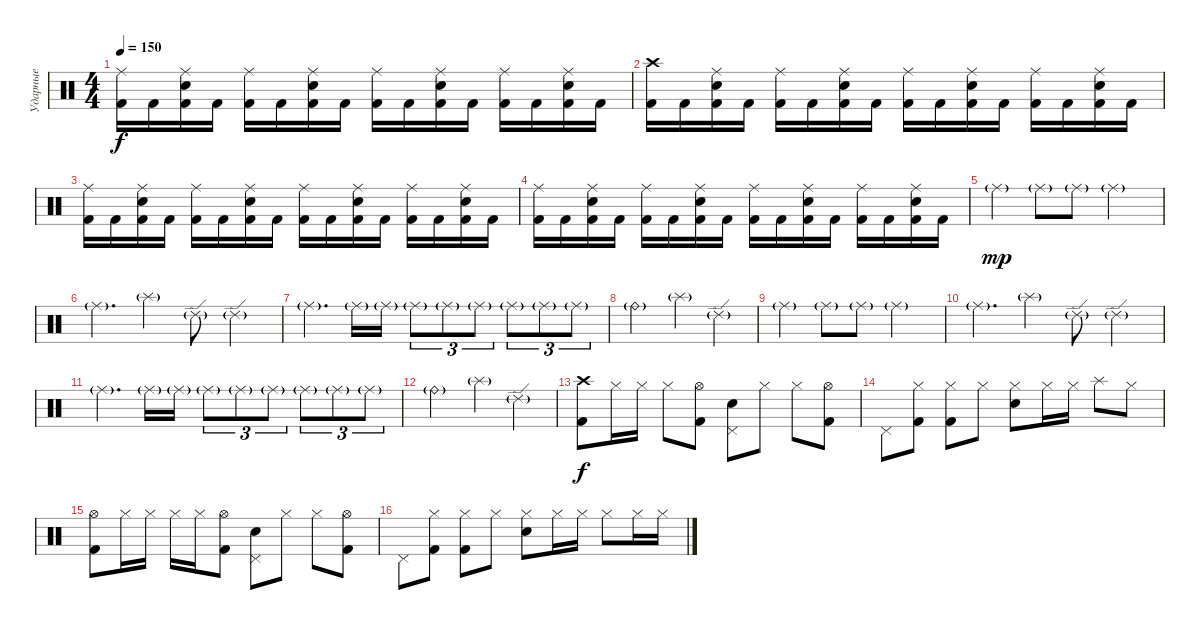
\track ("Ударные" "Ударные") {instrument percussion}
\staff {score}
\articulation defaults
\ts (4 4)
\tempo 150
\clef neutral
\ks c
("Ride (middle)" "Kick (hit) 2").16{dy f} "Kick (hit) 2".16 ("Ride (middle)" "Electric Snare (hit)" "Kick (hit) 2").16 "Kick (hit) 2".16 ("Ride (middle)" "Kick (hit) 2").16 "Kick (hit) 2".16 ("Ride (middle)" "Electric Snare (hit)" "Kick (hit) 2").16 "Kick (hit) 2".16 ("Ride (middle)" "Kick (hit) 2").16 "Kick (hit) 2".16 ("Ride (middle)" "Electric Snare (hit)" "Kick (hit) 2").16 "Kick (hit) 2".16 ("Ride (middle)" "Kick (hit) 2").16 "Kick (hit) 2".16 ("Ride (middle)" "Electric Snare (hit)" "Kick (hit) 2").16 "Kick (hit) 2".16 |
("Crash high (hit)" "Kick (hit) 2").16 "Kick (hit) 2".16 ("Ride (middle)" "Electric Snare (hit)" "Kick (hit) 2").16 "Kick (hit) 2".16 ("Ride (middle)" "Kick (hit) 2").16 "Kick (hit) 2".16 ("Ride (middle)" "Electric Snare (hit)" "Kick (hit) 2").16 "Kick (hit) 2".16 ("Ride (middle)" "Kick (hit) 2").16 "Kick (hit) 2".16 ("Ride (middle)" "Electric Snare (hit)" "Kick (hit) 2").16 "Kick (hit) 2".16 ("Ride (middle)" "Kick (hit) 2").16 "Kick (hit) 2".16 ("Ride (middle)" "Electric Snare (hit)" "Kick (hit) 2").16 "Kick (hit) 2".16 |
("Ride (middle)" "Kick (hit) 2").16 "Kick (hit) 2".16 ("Ride (middle)" "Electric Snare (hit)" "Kick (hit) 2").16 "Kick (hit) 2".16 ("Ride (middle)" "Kick (hit) 2").16 "Kick (hit) 2".16 ("Ride (middle)" "Electric Snare (hit)" "Kick (hit) 2").16 "Kick (hit) 2".16 ("Ride (middle)" "Kick (hit) 2").16 "Kick (hit) 2".16 ("Ride (middle)" "Electric Snare (hit)" "Kick (hit) 2").16 "Kick (hit) 2".16 ("Ride (middle)" "Kick (hit) 2").16 "Kick (hit) 2".16 ("Ride (middle)" "Electric Snare (hit)" "Kick (hit) 2").16 "Kick (hit) 2".16 |
("Ride (middle)" "Kick (hit) 2").16 "Kick (hit) 2".16 ("Ride (middle)" "Electric Snare (hit)" "Kick (hit) 2").16 "Kick (hit) 2".16 ("Ride (middle)" "Kick (hit) 2").16 "Kick (hit) 2".16 ("Ride (middle)" "Electric Snare (hit)" "Kick (hit) 2").16 "Kick (hit) 2".16 ("Ride (middle)" "Kick (hit) 2").16 "Kick (hit) 2".16 ("Ride (middle)" "Electric Snare (hit)" "Kick (hit) 2").16 "Kick (hit) 2".16 ("Ride (middle)" "Kick (hit) 2").16 "Kick (hit) 2".16 ("Ride (middle)" "Electric Snare (hit)" "Kick (hit) 2").16 "Kick (hit) 2".16 |
"Ride (middle)"{g}.4{dy mp} "Ride (middle)"{g}.8 "Ride (middle)"{g}.8 "Ride (middle)"{g}.2 |
"Ride (middle)"{g}.4{d} "Splash (hit)"{g}.4 "Ride (edge) 2"{g}.8 "Ride (edge) 2"{g}.4 |
"Ride (middle)"{g}.4{d} "Ride (middle)"{g}.16 "Ride (middle)"{g}.16 "Ride (middle)"{g}.8{tu (3 2)} "Ride (middle)"{g}.8{tu (3 2)} "Ride (middle)"{g}.8{tu (3 2)} "Ride (middle)"{g}.8{tu (3 2)} "Ride (middle)"{g}.8{tu (3 2)} "Ride (middle)"{g}.8{tu (3 2)} |
"Ride (bell)"{g}.2 "Splash (hit)"{g}.4 "Ride (edge) 2"{g}.4 |
"Ride (middle)"{g}.4 "Ride (middle)"{g}.8 "Ride (middle)"{g}.8 "Ride (middle)"{g}.2 |
"Ride (middle)"{g}.4{d} "Splash (hit)"{g}.4 "Ride (edge) 2"{g}.8 "Ride (edge) 2"{g}.4 |
"Ride (middle)"{g}.4{d} "Ride (middle)"{g}.16 "Ride (middle)"{g}.16 "Ride (middle)"{g}.8{tu (3 2)} "Ride (middle)"{g}.8{tu (3 2)} "Ride (middle)"{g}.8{tu (3 2)} "Ride (middle)"{g}.8{tu (3 2)} "Ride (middle)"{g}.8{tu (3 2)} "Ride (middle)"{g}.8{tu (3 2)} |
"Ride (bell)"{g}.2 "Splash (hit)"{g}.4 "Ride (edge) 2"{g}.4 |
("Crash high (hit)" "Kick (hit) 2").8{dy f} "Hi-Hat (closed)".16 "Hi-Hat (closed)".16 "Hi-Hat (closed)".8 ("Hi-Hat (open)" "Kick (hit) 2").8 ("Pedal Hi-Hat (hit)" "Electric Snare (hit)").8 "Hi-Hat (closed)".8 "Hi-Hat (closed)".8 ("Hi-Hat (open)" "Kick (hit) 2").8 |
"Pedal Hi-Hat (hit)".8 ("Hi-Hat (closed)" "Kick (hit) 2").8 ("Hi-Hat (closed)" "Kick (hit) 2").8 "Hi-Hat (closed)".8 ("Hi-Hat (closed)" "Electric Snare (hit)").8 "Hi-Hat (closed)".16 "Hi-Hat (closed)".16 "Splash (hit)".8 "Hi-Hat (closed)".8 |
("Hi-Hat (open)" "Kick (hit) 2").8 "Hi-Hat (closed)".16 "Hi-Hat (closed)".16 "Hi-Hat (closed)".16 "Hi-Hat (closed)".16 ("Hi-Hat (open)" "Kick (hit) 2").8 ("Pedal Hi-Hat (hit)" "Electric Snare (hit)").8 "Hi-Hat (closed)".8 "Hi-Hat (closed)".8 ("Hi-Hat (open)" "Kick (hit) 2").8 |
"Pedal Hi-Hat (hit)".8 ("Hi-Hat (closed)" "Kick (hit) 2").8 ("Hi-Hat (closed)" "Kick (hit) 2").8 "Hi-Hat (closed)".8 ("Hi-Hat (closed)" "Electric Snare (hit)").8 "Hi-Hat (closed)".16 "Hi-Hat (closed)".16 "Hi-Hat (closed)".8 "Hi-Hat (closed)".16 "Hi-Hat (closed)".16
